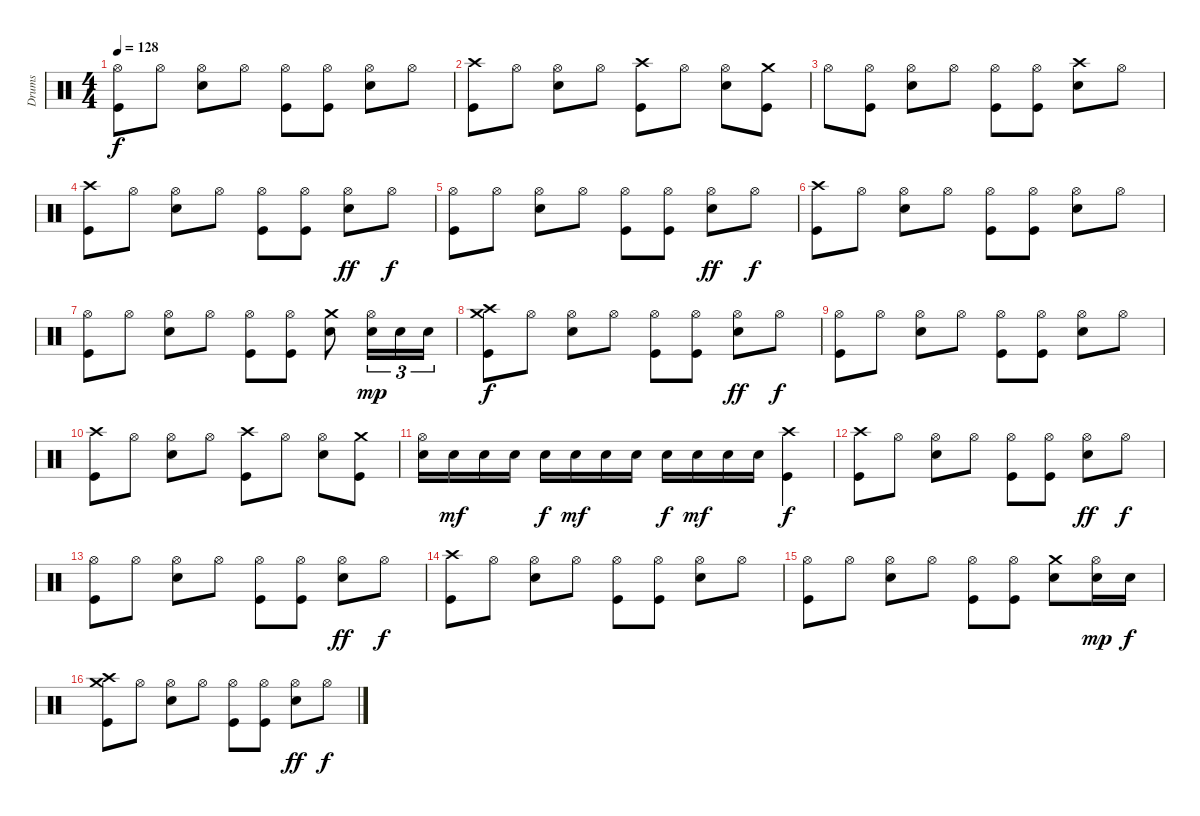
\track ("Drums" "Drums") {instrument percussion}
\staff {score}
\articulation defaults
\ts (4 4)
\tempo 128
\clef neutral
\ks c
("Hi-Hat (open)" "Kick (hit)").8{dy f} "Hi-Hat (open)".8 ("Hi-Hat (open)" "Snare (hit) 2").8 "Hi-Hat (open)".8 ("Hi-Hat (open)" "Kick (hit)").8 ("Hi-Hat (open)" "Kick (hit)").8 ("Hi-Hat (open)" "Snare (hit) 2").8 "Hi-Hat (open)".8 |
("Crash high (hit)" "Kick (hit)").8 "Hi-Hat (open)".8 ("Hi-Hat (open)" "Snare (hit) 2").8 "Hi-Hat (open)".8 ("Crash high (hit)" "Kick (hit)").8 "Hi-Hat (open)".8 ("Hi-Hat (open)" "Snare (hit) 2").8 ("Crash medium (hit)" "Kick (hit)").8 |
"Hi-Hat (open)".8 ("Hi-Hat (open)" "Kick (hit)").8 ("Hi-Hat (open)" "Snare (hit) 2").8 "Hi-Hat (open)".8 ("Hi-Hat (open)" "Kick (hit)").8 ("Hi-Hat (open)" "Kick (hit)").8 ("Crash high (hit)" "Snare (hit) 2").8 "Hi-Hat (open)".8 |
("Crash high (hit)" "Kick (hit)").8 "Hi-Hat (open)".8 ("Hi-Hat (open)" "Snare (hit) 2").8 "Hi-Hat (open)".8 ("Hi-Hat (open)" "Kick (hit)").8 ("Hi-Hat (open)" "Kick (hit)").8 ("Hi-Hat (open)" "Snare (hit) 2").8{dy ff} "Hi-Hat (open)".8{dy f} |
("Hi-Hat (open)" "Kick (hit)").8 "Hi-Hat (open)".8 ("Hi-Hat (open)" "Snare (hit) 2").8 "Hi-Hat (open)".8 ("Hi-Hat (open)" "Kick (hit)").8 ("Hi-Hat (open)" "Kick (hit)").8 ("Hi-Hat (open)" "Snare (hit) 2").8{dy ff} "Hi-Hat (open)".8{dy f} |
("Crash high (hit)" "Kick (hit)").8 "Hi-Hat (open)".8 ("Hi-Hat (open)" "Snare (hit) 2").8 "Hi-Hat (open)".8 ("Hi-Hat (open)" "Kick (hit)").8 ("Hi-Hat (open)" "Kick (hit)").8 ("Hi-Hat (open)" "Snare (hit) 2").8 "Hi-Hat (open)".8 |
("Hi-Hat (open)" "Kick (hit)").8 "Hi-Hat (open)".8 ("Hi-Hat (open)" "Snare (hit) 2").8 "Hi-Hat (open)".8 ("Hi-Hat (open)" "Kick (hit)").8 ("Hi-Hat (open)" "Kick (hit)").8 ("Crash medium (hit)" "Snare (hit) 2").8 ("Hi-Hat (open)" "Snare (hit) 2").16{tu (3 2) dy mp} "Snare (hit) 2".16{tu (3 2)} "Snare (hit) 2".16{tu (3 2)} |
("Crash high (hit)" "Crash medium (hit)" "Kick (hit)").8{dy f} "Hi-Hat (open)".8 ("Hi-Hat (open)" "Snare (hit) 2").8 "Hi-Hat (open)".8 ("Hi-Hat (open)" "Kick (hit)").8 ("Hi-Hat (open)" "Kick (hit)").8 ("Hi-Hat (open)" "Snare (hit) 2").8{dy ff} "Hi-Hat (open)".8{dy f} |
("Hi-Hat (open)" "Kick (hit)").8 "Hi-Hat (open)".8 ("Hi-Hat (open)" "Snare (hit) 2").8 "Hi-Hat (open)".8 ("Hi-Hat (open)" "Kick (hit)").8 ("Hi-Hat (open)" "Kick (hit)").8 ("Hi-Hat (open)" "Snare (hit) 2").8 "Hi-Hat (open)".8 |
("Crash high (hit)" "Kick (hit)").8 "Hi-Hat (open)".8 ("Hi-Hat (open)" "Snare (hit) 2").8 "Hi-Hat (open)".8 ("Crash high (hit)" "Kick (hit)").8 "Hi-Hat (open)".8 ("Hi-Hat (open)" "Snare (hit) 2").8 ("Crash medium (hit)" "Kick (hit)").8 |
("Hi-Hat (open)" "Snare (hit) 2").16 "Snare (hit) 2".16{dy mf} "Snare (hit) 2".16 "Snare (hit) 2".16 "Snare (hit) 2".16{dy f} "Snare (hit) 2".16{dy mf} "Snare (hit) 2".16 "Snare (hit) 2".16 "Snare (hit) 2".16{dy f} "Snare (hit) 2".16{dy mf} "Snare (hit) 2".16 "Snare (hit) 2".16 ("Crash high (hit)" "Kick (hit)").4{dy f} |
("Crash high (hit)" "Kick (hit)").8 "Hi-Hat (open)".8 ("Hi-Hat (open)" "Snare (hit) 2").8 "Hi-Hat (open)".8 ("Hi-Hat (open)" "Kick (hit)").8 ("Hi-Hat (open)" "Kick (hit)").8 ("Hi-Hat (open)" "Snare (hit) 2").8{dy ff} "Hi-Hat (open)".8{dy f} |
("Hi-Hat (open)" "Kick (hit)").8 "Hi-Hat (open)".8 ("Hi-Hat (open)" "Snare (hit) 2").8 "Hi-Hat (open)".8 ("Hi-Hat (open)" "Kick (hit)").8 ("Hi-Hat (open)" "Kick (hit)").8 ("Hi-Hat (open)" "Snare (hit) 2").8{dy ff} "Hi-Hat (open)".8{dy f} |
("Crash high (hit)" "Kick (hit)").8 "Hi-Hat (open)".8 ("Hi-Hat (open)" "Snare (hit) 2").8 "Hi-Hat (open)".8 ("Hi-Hat (open)" "Kick (hit)").8 ("Hi-Hat (open)" "Kick (hit)").8 ("Hi-Hat (open)" "Snare (hit) 2").8 "Hi-Hat (open)".8 |
("Hi-Hat (open)" "Kick (hit)").8 "Hi-Hat (open)".8 ("Hi-Hat (open)" "Snare (hit) 2").8 "Hi-Hat (open)".8 ("Hi-Hat (open)" "Kick (hit)").8 ("Hi-Hat (open)" "Kick (hit)").8 ("Crash medium (hit)" "Snare (hit) 2").8 ("Hi-Hat (open)" "Snare (hit) 2").16{dy mp} "Snare (hit) 2".16{dy f} |
("Crash high (hit)" "Crash medium (hit)" "Kick (hit)").8 "Hi-Hat (open)".8 ("Hi-Hat (open)" "Snare (hit) 2").8 "Hi-Hat (open)".8 ("Hi-Hat (open)" "Kick (hit)").8 ("Hi-Hat (open)" "Kick (hit)").8 ("Hi-Hat (open)" "Snare (hit) 2").8{dy ff} "Hi-Hat (open)".8{dy f}
